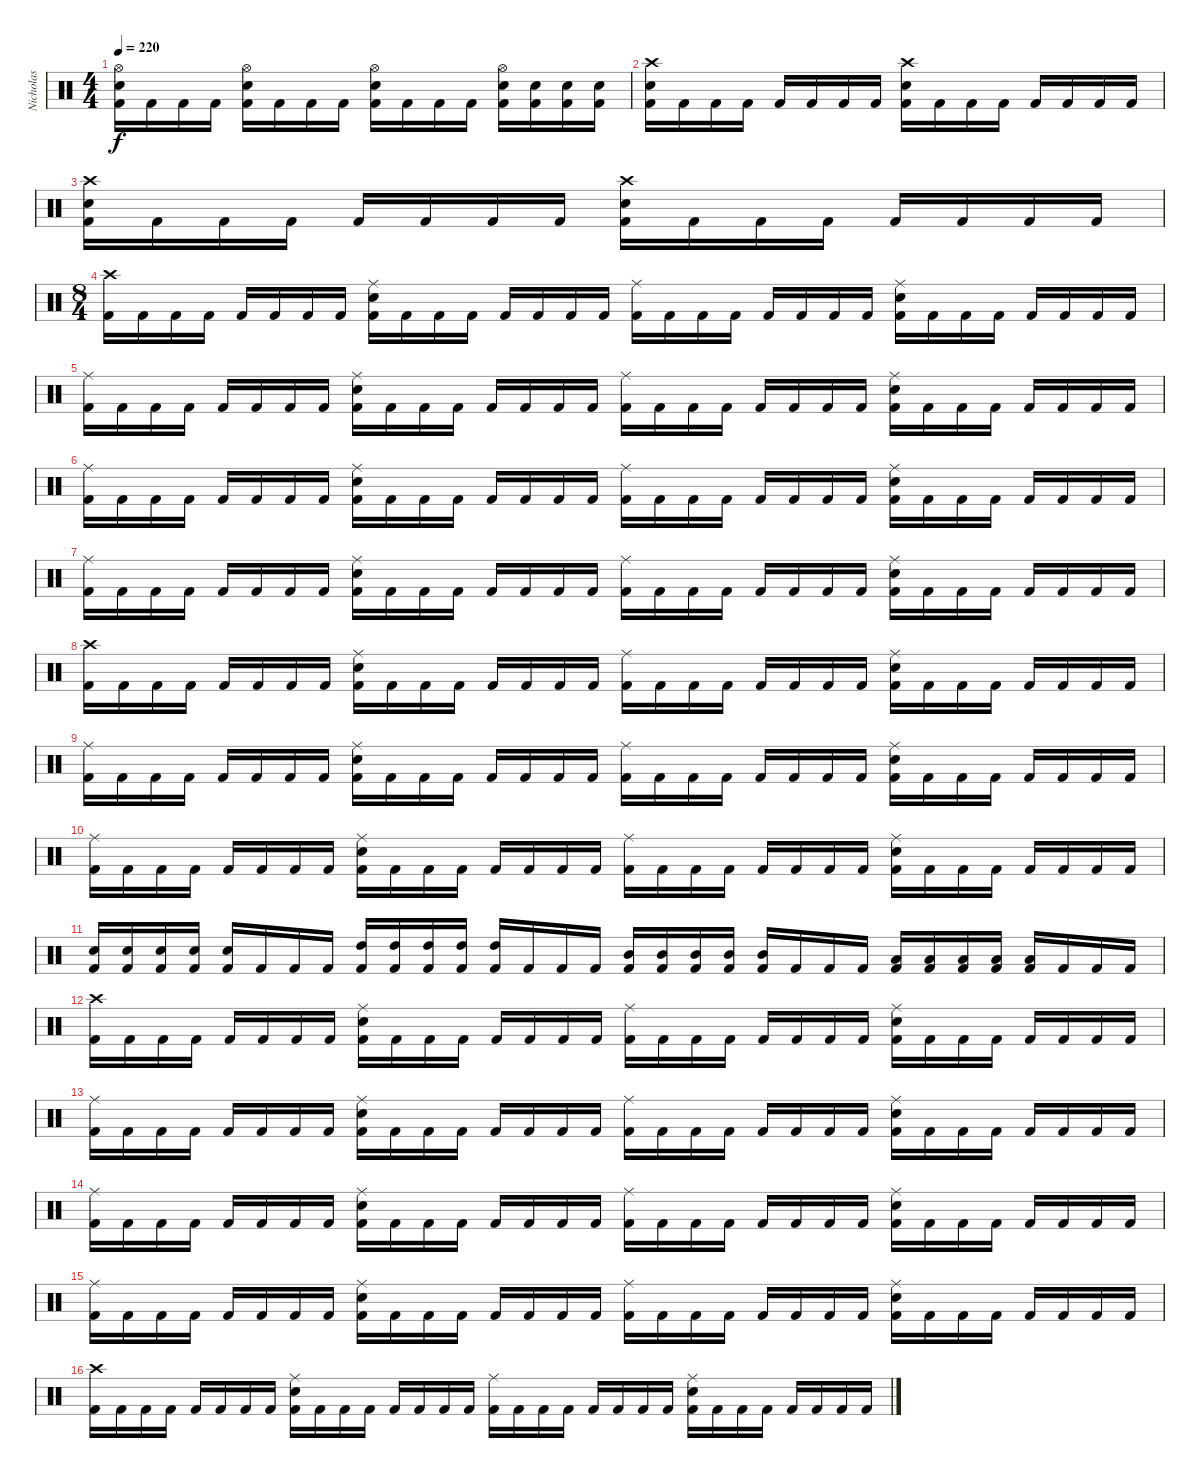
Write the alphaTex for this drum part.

\track ("Nicholas" "Nicholas") {instrument percussion}
\staff {score}
\articulation defaults
\ts (4 4)
\tempo 220
\clef neutral
\ks c
("Kick (hit) 2" "Snare (hit) 2" "Hi-Hat (open)").16{dy f} "Kick (hit) 2".16 "Kick (hit) 2".16 "Kick (hit) 2".16 ("Kick (hit) 2" "Snare (hit) 2" "Hi-Hat (open)").16 "Kick (hit) 2".16 "Kick (hit) 2".16 "Kick (hit) 2".16 ("Kick (hit) 2" "Snare (hit) 2" "Hi-Hat (open)").16 "Kick (hit) 2".16 "Kick (hit) 2".16 "Kick (hit) 2".16 ("Kick (hit) 2" "Snare (hit) 2" "Hi-Hat (open)").16 ("Kick (hit) 2" "Snare (hit) 2").16 ("Kick (hit) 2" "Snare (hit) 2").16 ("Kick (hit) 2" "Snare (hit) 2").16 |
("Kick (hit) 2" "Snare (hit) 2" "Crash high (hit)").16 "Kick (hit) 2".16 "Kick (hit) 2".16 "Kick (hit) 2".16 "Kick (hit) 2".16 "Kick (hit) 2".16 "Kick (hit) 2".16 "Kick (hit) 2".16 ("Kick (hit) 2" "Snare (hit) 2" "Crash high (hit)").16 "Kick (hit) 2".16 "Kick (hit) 2".16 "Kick (hit) 2".16 "Kick (hit) 2".16 "Kick (hit) 2".16 "Kick (hit) 2".16 "Kick (hit) 2".16 |
("Kick (hit) 2" "Snare (hit) 2" "Crash high (hit)").16 "Kick (hit) 2".16 "Kick (hit) 2".16 "Kick (hit) 2".16 "Kick (hit) 2".16 "Kick (hit) 2".16 "Kick (hit) 2".16 "Kick (hit) 2".16 ("Kick (hit) 2" "Snare (hit) 2" "Crash high (hit)").16 "Kick (hit) 2".16 "Kick (hit) 2".16 "Kick (hit) 2".16 "Kick (hit) 2".16 "Kick (hit) 2".16 "Kick (hit) 2".16 "Kick (hit) 2".16 |
\ts (8 4)
("Kick (hit) 2" "Crash high (hit)").16 "Kick (hit) 2".16 "Kick (hit) 2".16 "Kick (hit) 2".16 "Kick (hit) 2".16 "Kick (hit) 2".16 "Kick (hit) 2".16 "Kick (hit) 2".16 ("Kick (hit) 2" "Snare (hit) 2" "Ride (middle)").16 "Kick (hit) 2".16 "Kick (hit) 2".16 "Kick (hit) 2".16 "Kick (hit) 2".16 "Kick (hit) 2".16 "Kick (hit) 2".16 "Kick (hit) 2".16 ("Kick (hit) 2" "Ride (middle)").16 "Kick (hit) 2".16 "Kick (hit) 2".16 "Kick (hit) 2".16 "Kick (hit) 2".16 "Kick (hit) 2".16 "Kick (hit) 2".16 "Kick (hit) 2".16 ("Kick (hit) 2" "Snare (hit) 2" "Ride (middle)").16 "Kick (hit) 2".16 "Kick (hit) 2".16 "Kick (hit) 2".16 "Kick (hit) 2".16 "Kick (hit) 2".16 "Kick (hit) 2".16 "Kick (hit) 2".16 |
("Kick (hit) 2" "Ride (middle)").16 "Kick (hit) 2".16 "Kick (hit) 2".16 "Kick (hit) 2".16 "Kick (hit) 2".16 "Kick (hit) 2".16 "Kick (hit) 2".16 "Kick (hit) 2".16 ("Kick (hit) 2" "Snare (hit) 2" "Ride (middle)").16 "Kick (hit) 2".16 "Kick (hit) 2".16 "Kick (hit) 2".16 "Kick (hit) 2".16 "Kick (hit) 2".16 "Kick (hit) 2".16 "Kick (hit) 2".16 ("Kick (hit) 2" "Ride (middle)").16 "Kick (hit) 2".16 "Kick (hit) 2".16 "Kick (hit) 2".16 "Kick (hit) 2".16 "Kick (hit) 2".16 "Kick (hit) 2".16 "Kick (hit) 2".16 ("Kick (hit) 2" "Snare (hit) 2" "Ride (middle)").16 "Kick (hit) 2".16 "Kick (hit) 2".16 "Kick (hit) 2".16 "Kick (hit) 2".16 "Kick (hit) 2".16 "Kick (hit) 2".16 "Kick (hit) 2".16 |
("Kick (hit) 2" "Ride (middle)").16 "Kick (hit) 2".16 "Kick (hit) 2".16 "Kick (hit) 2".16 "Kick (hit) 2".16 "Kick (hit) 2".16 "Kick (hit) 2".16 "Kick (hit) 2".16 ("Kick (hit) 2" "Snare (hit) 2" "Ride (middle)").16 "Kick (hit) 2".16 "Kick (hit) 2".16 "Kick (hit) 2".16 "Kick (hit) 2".16 "Kick (hit) 2".16 "Kick (hit) 2".16 "Kick (hit) 2".16 ("Kick (hit) 2" "Ride (middle)").16 "Kick (hit) 2".16 "Kick (hit) 2".16 "Kick (hit) 2".16 "Kick (hit) 2".16 "Kick (hit) 2".16 "Kick (hit) 2".16 "Kick (hit) 2".16 ("Kick (hit) 2" "Snare (hit) 2" "Ride (middle)").16 "Kick (hit) 2".16 "Kick (hit) 2".16 "Kick (hit) 2".16 "Kick (hit) 2".16 "Kick (hit) 2".16 "Kick (hit) 2".16 "Kick (hit) 2".16 |
("Kick (hit) 2" "Ride (middle)").16 "Kick (hit) 2".16 "Kick (hit) 2".16 "Kick (hit) 2".16 "Kick (hit) 2".16 "Kick (hit) 2".16 "Kick (hit) 2".16 "Kick (hit) 2".16 ("Kick (hit) 2" "Snare (hit) 2" "Ride (middle)").16 "Kick (hit) 2".16 "Kick (hit) 2".16 "Kick (hit) 2".16 "Kick (hit) 2".16 "Kick (hit) 2".16 "Kick (hit) 2".16 "Kick (hit) 2".16 ("Kick (hit) 2" "Ride (middle)").16 "Kick (hit) 2".16 "Kick (hit) 2".16 "Kick (hit) 2".16 "Kick (hit) 2".16 "Kick (hit) 2".16 "Kick (hit) 2".16 "Kick (hit) 2".16 ("Kick (hit) 2" "Snare (hit) 2" "Ride (middle)").16 "Kick (hit) 2".16 "Kick (hit) 2".16 "Kick (hit) 2".16 "Kick (hit) 2".16 "Kick (hit) 2".16 "Kick (hit) 2".16 "Kick (hit) 2".16 |
("Kick (hit) 2" "Crash high (hit)").16 "Kick (hit) 2".16 "Kick (hit) 2".16 "Kick (hit) 2".16 "Kick (hit) 2".16 "Kick (hit) 2".16 "Kick (hit) 2".16 "Kick (hit) 2".16 ("Kick (hit) 2" "Snare (hit) 2" "Ride (middle)").16 "Kick (hit) 2".16 "Kick (hit) 2".16 "Kick (hit) 2".16 "Kick (hit) 2".16 "Kick (hit) 2".16 "Kick (hit) 2".16 "Kick (hit) 2".16 ("Kick (hit) 2" "Ride (middle)").16 "Kick (hit) 2".16 "Kick (hit) 2".16 "Kick (hit) 2".16 "Kick (hit) 2".16 "Kick (hit) 2".16 "Kick (hit) 2".16 "Kick (hit) 2".16 ("Kick (hit) 2" "Snare (hit) 2" "Ride (middle)").16 "Kick (hit) 2".16 "Kick (hit) 2".16 "Kick (hit) 2".16 "Kick (hit) 2".16 "Kick (hit) 2".16 "Kick (hit) 2".16 "Kick (hit) 2".16 |
("Kick (hit) 2" "Ride (middle)").16 "Kick (hit) 2".16 "Kick (hit) 2".16 "Kick (hit) 2".16 "Kick (hit) 2".16 "Kick (hit) 2".16 "Kick (hit) 2".16 "Kick (hit) 2".16 ("Kick (hit) 2" "Snare (hit) 2" "Ride (middle)").16 "Kick (hit) 2".16 "Kick (hit) 2".16 "Kick (hit) 2".16 "Kick (hit) 2".16 "Kick (hit) 2".16 "Kick (hit) 2".16 "Kick (hit) 2".16 ("Kick (hit) 2" "Ride (middle)").16 "Kick (hit) 2".16 "Kick (hit) 2".16 "Kick (hit) 2".16 "Kick (hit) 2".16 "Kick (hit) 2".16 "Kick (hit) 2".16 "Kick (hit) 2".16 ("Kick (hit) 2" "Snare (hit) 2" "Ride (middle)").16 "Kick (hit) 2".16 "Kick (hit) 2".16 "Kick (hit) 2".16 "Kick (hit) 2".16 "Kick (hit) 2".16 "Kick (hit) 2".16 "Kick (hit) 2".16 |
("Kick (hit) 2" "Ride (middle)").16 "Kick (hit) 2".16 "Kick (hit) 2".16 "Kick (hit) 2".16 "Kick (hit) 2".16 "Kick (hit) 2".16 "Kick (hit) 2".16 "Kick (hit) 2".16 ("Kick (hit) 2" "Snare (hit) 2" "Ride (middle)").16 "Kick (hit) 2".16 "Kick (hit) 2".16 "Kick (hit) 2".16 "Kick (hit) 2".16 "Kick (hit) 2".16 "Kick (hit) 2".16 "Kick (hit) 2".16 ("Kick (hit) 2" "Ride (middle)").16 "Kick (hit) 2".16 "Kick (hit) 2".16 "Kick (hit) 2".16 "Kick (hit) 2".16 "Kick (hit) 2".16 "Kick (hit) 2".16 "Kick (hit) 2".16 ("Kick (hit) 2" "Snare (hit) 2" "Ride (middle)").16 "Kick (hit) 2".16 "Kick (hit) 2".16 "Kick (hit) 2".16 "Kick (hit) 2".16 "Kick (hit) 2".16 "Kick (hit) 2".16 "Kick (hit) 2".16 |
("Kick (hit) 2" "Snare (hit) 2").16 ("Kick (hit) 2" "Snare (hit) 2").16 ("Kick (hit) 2" "Snare (hit) 2").16 ("Kick (hit) 2" "Snare (hit) 2").16 ("Kick (hit) 2" "Snare (hit) 2").16 "Kick (hit) 2".16 "Kick (hit) 2".16 "Kick (hit) 2".16 ("Kick (hit) 2" "High Tom (hit)").16 ("Kick (hit) 2" "High Tom (hit)").16 ("Kick (hit) 2" "High Tom (hit)").16 ("Kick (hit) 2" "High Tom (hit)").16 ("Kick (hit) 2" "High Tom (hit)").16 "Kick (hit) 2".16 "Kick (hit) 2".16 "Kick (hit) 2".16 ("Kick (hit) 2" "Mid Tom (hit)").16 ("Kick (hit) 2" "Mid Tom (hit)").16 ("Kick (hit) 2" "Mid Tom (hit)").16 ("Kick (hit) 2" "Mid Tom (hit)").16 ("Kick (hit) 2" "Mid Tom (hit)").16 "Kick (hit) 2".16 "Kick (hit) 2".16 "Kick (hit) 2".16 ("Kick (hit) 2" "Low Tom (hit)").16 ("Kick (hit) 2" "Low Tom (hit)").16 ("Kick (hit) 2" "Low Tom (hit)").16 ("Kick (hit) 2" "Low Tom (hit)").16 ("Kick (hit) 2" "Low Tom (hit)").16 "Kick (hit) 2".16 "Kick (hit) 2".16 "Kick (hit) 2".16 |
("Kick (hit) 2" "Crash high (hit)").16 "Kick (hit) 2".16 "Kick (hit) 2".16 "Kick (hit) 2".16 "Kick (hit) 2".16 "Kick (hit) 2".16 "Kick (hit) 2".16 "Kick (hit) 2".16 ("Kick (hit) 2" "Snare (hit) 2" "Ride (middle)").16 "Kick (hit) 2".16 "Kick (hit) 2".16 "Kick (hit) 2".16 "Kick (hit) 2".16 "Kick (hit) 2".16 "Kick (hit) 2".16 "Kick (hit) 2".16 ("Kick (hit) 2" "Ride (middle)").16 "Kick (hit) 2".16 "Kick (hit) 2".16 "Kick (hit) 2".16 "Kick (hit) 2".16 "Kick (hit) 2".16 "Kick (hit) 2".16 "Kick (hit) 2".16 ("Kick (hit) 2" "Snare (hit) 2" "Ride (middle)").16 "Kick (hit) 2".16 "Kick (hit) 2".16 "Kick (hit) 2".16 "Kick (hit) 2".16 "Kick (hit) 2".16 "Kick (hit) 2".16 "Kick (hit) 2".16 |
("Kick (hit) 2" "Ride (middle)").16 "Kick (hit) 2".16 "Kick (hit) 2".16 "Kick (hit) 2".16 "Kick (hit) 2".16 "Kick (hit) 2".16 "Kick (hit) 2".16 "Kick (hit) 2".16 ("Kick (hit) 2" "Snare (hit) 2" "Ride (middle)").16 "Kick (hit) 2".16 "Kick (hit) 2".16 "Kick (hit) 2".16 "Kick (hit) 2".16 "Kick (hit) 2".16 "Kick (hit) 2".16 "Kick (hit) 2".16 ("Kick (hit) 2" "Ride (middle)").16 "Kick (hit) 2".16 "Kick (hit) 2".16 "Kick (hit) 2".16 "Kick (hit) 2".16 "Kick (hit) 2".16 "Kick (hit) 2".16 "Kick (hit) 2".16 ("Kick (hit) 2" "Snare (hit) 2" "Ride (middle)").16 "Kick (hit) 2".16 "Kick (hit) 2".16 "Kick (hit) 2".16 "Kick (hit) 2".16 "Kick (hit) 2".16 "Kick (hit) 2".16 "Kick (hit) 2".16 |
("Kick (hit) 2" "Ride (middle)").16 "Kick (hit) 2".16 "Kick (hit) 2".16 "Kick (hit) 2".16 "Kick (hit) 2".16 "Kick (hit) 2".16 "Kick (hit) 2".16 "Kick (hit) 2".16 ("Kick (hit) 2" "Snare (hit) 2" "Ride (middle)").16 "Kick (hit) 2".16 "Kick (hit) 2".16 "Kick (hit) 2".16 "Kick (hit) 2".16 "Kick (hit) 2".16 "Kick (hit) 2".16 "Kick (hit) 2".16 ("Kick (hit) 2" "Ride (middle)").16 "Kick (hit) 2".16 "Kick (hit) 2".16 "Kick (hit) 2".16 "Kick (hit) 2".16 "Kick (hit) 2".16 "Kick (hit) 2".16 "Kick (hit) 2".16 ("Kick (hit) 2" "Snare (hit) 2" "Ride (middle)").16 "Kick (hit) 2".16 "Kick (hit) 2".16 "Kick (hit) 2".16 "Kick (hit) 2".16 "Kick (hit) 2".16 "Kick (hit) 2".16 "Kick (hit) 2".16 |
("Kick (hit) 2" "Ride (middle)").16 "Kick (hit) 2".16 "Kick (hit) 2".16 "Kick (hit) 2".16 "Kick (hit) 2".16 "Kick (hit) 2".16 "Kick (hit) 2".16 "Kick (hit) 2".16 ("Kick (hit) 2" "Snare (hit) 2" "Ride (middle)").16 "Kick (hit) 2".16 "Kick (hit) 2".16 "Kick (hit) 2".16 "Kick (hit) 2".16 "Kick (hit) 2".16 "Kick (hit) 2".16 "Kick (hit) 2".16 ("Kick (hit) 2" "Ride (middle)").16 "Kick (hit) 2".16 "Kick (hit) 2".16 "Kick (hit) 2".16 "Kick (hit) 2".16 "Kick (hit) 2".16 "Kick (hit) 2".16 "Kick (hit) 2".16 ("Kick (hit) 2" "Snare (hit) 2" "Ride (middle)").16 "Kick (hit) 2".16 "Kick (hit) 2".16 "Kick (hit) 2".16 "Kick (hit) 2".16 "Kick (hit) 2".16 "Kick (hit) 2".16 "Kick (hit) 2".16 |
("Kick (hit) 2" "Crash high (hit)").16 "Kick (hit) 2".16 "Kick (hit) 2".16 "Kick (hit) 2".16 "Kick (hit) 2".16 "Kick (hit) 2".16 "Kick (hit) 2".16 "Kick (hit) 2".16 ("Kick (hit) 2" "Snare (hit) 2" "Ride (middle)").16 "Kick (hit) 2".16 "Kick (hit) 2".16 "Kick (hit) 2".16 "Kick (hit) 2".16 "Kick (hit) 2".16 "Kick (hit) 2".16 "Kick (hit) 2".16 ("Kick (hit) 2" "Ride (middle)").16 "Kick (hit) 2".16 "Kick (hit) 2".16 "Kick (hit) 2".16 "Kick (hit) 2".16 "Kick (hit) 2".16 "Kick (hit) 2".16 "Kick (hit) 2".16 ("Kick (hit) 2" "Snare (hit) 2" "Ride (middle)").16 "Kick (hit) 2".16 "Kick (hit) 2".16 "Kick (hit) 2".16 "Kick (hit) 2".16 "Kick (hit) 2".16 "Kick (hit) 2".16 "Kick (hit) 2".16
